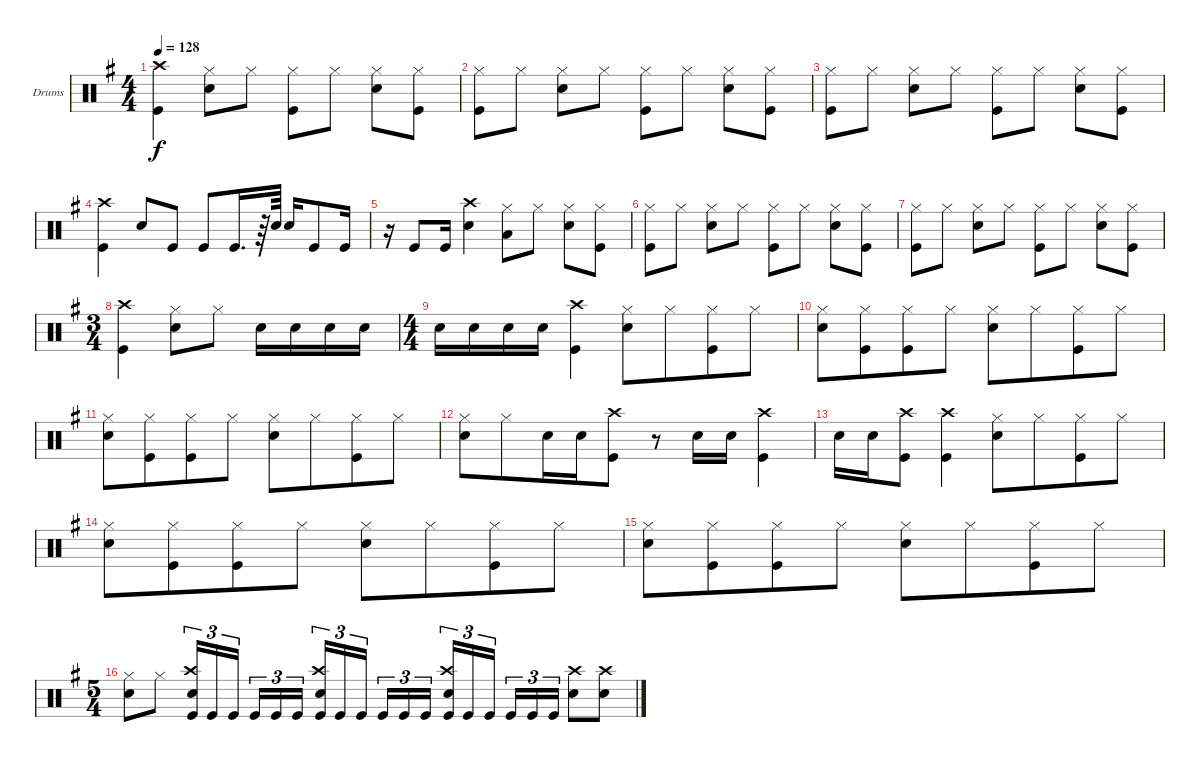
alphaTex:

\bracketExtendMode groupsimilarinstruments
\firstSystemTrackNameOrientation horizontal
\otherSystemsTrackNameOrientation horizontal
\track ("Drumkit" "Drums") {instrument percussion}
\staff {score}
\articulation defaults
\ts (4 4)
\tempo 128
\clef neutral
\scale
1.04288
\ks g
("Kick (hit)" "Crash high (hit)").4{dy f} ("Snare (hit) 2" "Hi-Hat (closed)").8 "Hi-Hat (closed)".8 ("Hi-Hat (closed)" "Kick (hit)").8 "Hi-Hat (closed)".8 ("Snare (hit) 2" "Hi-Hat (closed)").8 ("Kick (hit)" "Hi-Hat (closed)").8 |
\scale
0.957125 ("Hi-Hat (closed)" "Kick (hit)").8 "Hi-Hat (closed)".8 ("Snare (hit) 2" "Hi-Hat (closed)").8 "Hi-Hat (closed)".8 ("Hi-Hat (closed)" "Kick (hit)").8 "Hi-Hat (closed)".8 ("Snare (hit) 2" "Hi-Hat (closed)").8 ("Kick (hit)" "Hi-Hat (closed)").8 |
\scale
1.04288 ("Hi-Hat (closed)" "Kick (hit)").8 "Hi-Hat (closed)".8 ("Snare (hit) 2" "Hi-Hat (closed)").8 "Hi-Hat (closed)".8 ("Hi-Hat (closed)" "Kick (hit)").8 "Hi-Hat (closed)".8 ("Snare (hit) 2" "Hi-Hat (closed)").8 ("Kick (hit)" "Hi-Hat (closed)").8 |
\scale
0.957125 ("Kick (hit)" "Crash high (hit)").4 "Snare (hit) 2".8 "Kick (hit)".8 "Kick (hit)".8 "Kick (hit)".16{d} r.64 "Snare (hit) 2".64 "Snare (hit) 2".16 "Kick (hit)".8 "Kick (hit)".16 |
\scale
1.04288 r.16 "Kick (hit)".8 "Kick (hit)".16 ("Snare (hit) 2" "Crash high (hit)").4 ("Low Tom (hit)" "Hi-Hat (closed)").8 "Hi-Hat (closed)".8 ("Snare (hit) 2" "Hi-Hat (closed)").8 ("Kick (hit)" "Hi-Hat (closed)").8 |
\scale
0.957125 ("Hi-Hat (closed)" "Kick (hit)").8 "Hi-Hat (closed)".8 ("Snare (hit) 2" "Hi-Hat (closed)").8 "Hi-Hat (closed)".8 ("Hi-Hat (closed)" "Kick (hit)").8 "Hi-Hat (closed)".8 ("Snare (hit) 2" "Hi-Hat (closed)").8 ("Kick (hit)" "Hi-Hat (closed)").8 |
\scale
1.04288 ("Hi-Hat (closed)" "Kick (hit)").8 "Hi-Hat (closed)".8 ("Snare (hit) 2" "Hi-Hat (closed)").8 "Hi-Hat (closed)".8 ("Hi-Hat (closed)" "Kick (hit)").8 "Hi-Hat (closed)".8 ("Snare (hit) 2" "Hi-Hat (closed)").8 ("Kick (hit)" "Hi-Hat (closed)").8 |
\ts (3 4)
\beaming (8 4 4 6)
\scale
0.957125 ("Kick (hit)" "Crash high (hit)").4 ("Snare (hit) 2" "Hi-Hat (closed)").8 "Hi-Hat (closed)".8 "Snare (hit) 2".16 "Snare (hit) 2".16 "Snare (hit) 2".16 "Snare (hit) 2".16 |
\ts (4 4)
\beaming (8 4 4 6)
\scale
1.07314 "Snare (hit) 2".16 "Snare (hit) 2".16 "Snare (hit) 2".16 "Snare (hit) 2".16 ("Kick (hit)" "Crash high (hit)").4 ("Snare (hit) 2" "Hi-Hat (closed)").8 "Hi-Hat (closed)".8 ("Kick (hit)" "Hi-Hat (closed)").8 "Hi-Hat (closed)".8 |
\scale
0.92686 ("Hi-Hat (closed)" "Snare (hit) 2").8 ("Hi-Hat (closed)" "Kick (hit)").8 ("Hi-Hat (closed)" "Kick (hit)").8 "Hi-Hat (closed)".8 ("Snare (hit) 2" "Hi-Hat (closed)").8 "Hi-Hat (closed)".8 ("Hi-Hat (closed)" "Kick (hit)").8 "Hi-Hat (closed)".8 |
\scale
1.04288 ("Hi-Hat (closed)" "Snare (hit) 2").8 ("Hi-Hat (closed)" "Kick (hit)").8 ("Hi-Hat (closed)" "Kick (hit)").8 "Hi-Hat (closed)".8 ("Snare (hit) 2" "Hi-Hat (closed)").8 "Hi-Hat (closed)".8 ("Hi-Hat (closed)" "Kick (hit)").8 "Hi-Hat (closed)".8 |
\scale
0.957125 ("Hi-Hat (closed)" "Snare (hit) 2").8 "Hi-Hat (closed)".8 "Snare (hit) 2".16 "Snare (hit) 2".16 ("Kick (hit)" "Crash high (hit)").8 r.8 "Snare (hit) 2".16 "Snare (hit) 2".16 ("Kick (hit)" "Crash high (hit)").4 |
\scale
1.04288 "Snare (hit) 2".16 "Snare (hit) 2".16 ("Kick (hit)" "Crash high (hit)").8 ("Kick (hit)" "Crash high (hit)").4 ("Hi-Hat (closed)" "Snare (hit) 2").8 "Hi-Hat (closed)".8 ("Hi-Hat (closed)" "Kick (hit)").8 "Hi-Hat (closed)".8 |
\scale
0.957125 ("Hi-Hat (closed)" "Snare (hit) 2").8 ("Hi-Hat (closed)" "Kick (hit)").8 ("Hi-Hat (closed)" "Kick (hit)").8 "Hi-Hat (closed)".8 ("Snare (hit) 2" "Hi-Hat (closed)").8 "Hi-Hat (closed)".8 ("Hi-Hat (closed)" "Kick (hit)").8 "Hi-Hat (closed)".8 |
\scale
1.04288 ("Hi-Hat (closed)" "Snare (hit) 2").8 ("Hi-Hat (closed)" "Kick (hit)").8 ("Hi-Hat (closed)" "Kick (hit)").8 "Hi-Hat (closed)".8 ("Snare (hit) 2" "Hi-Hat (closed)").8 "Hi-Hat (closed)".8 ("Hi-Hat (closed)" "Kick (hit)").8 "Hi-Hat (closed)".8 |
\ts (5 4)
\beaming (8 4 4 6)
\scale
0.957125 ("Snare (hit) 2" "Hi-Hat (closed)").8 "Hi-Hat (closed)".8 ("Snare (hit) 2" "Crash high (hit)" "Kick (hit)").16{tu (3 2)} "Kick (hit)".16{tu (3 2)} "Kick (hit)".16{tu (3 2)} "Kick (hit)".16{tu (3 2)} "Kick (hit)".16{tu (3 2)} "Kick (hit)".16{tu (3 2)} ("Crash high (hit)" "Snare (hit) 2" "Kick (hit)").16{tu (3 2)} "Kick (hit)".16{tu (3 2)} "Kick (hit)".16{tu (3 2)} "Kick (hit)".16{tu (3 2)} "Kick (hit)".16{tu (3 2)} "Kick (hit)".16{tu (3 2)} ("Crash high (hit)" "Snare (hit) 2" "Kick (hit)").16{tu (3 2)} "Kick (hit)".16{tu (3 2)} "Kick (hit)".16{tu (3 2)} "Kick (hit)".16{tu (3 2)} "Kick (hit)".16{tu (3 2)} "Kick (hit)".16{tu (3 2)} ("Crash high (hit)" "Snare (hit) 2").8 ("Crash high (hit)" "Snare (hit) 2").8
